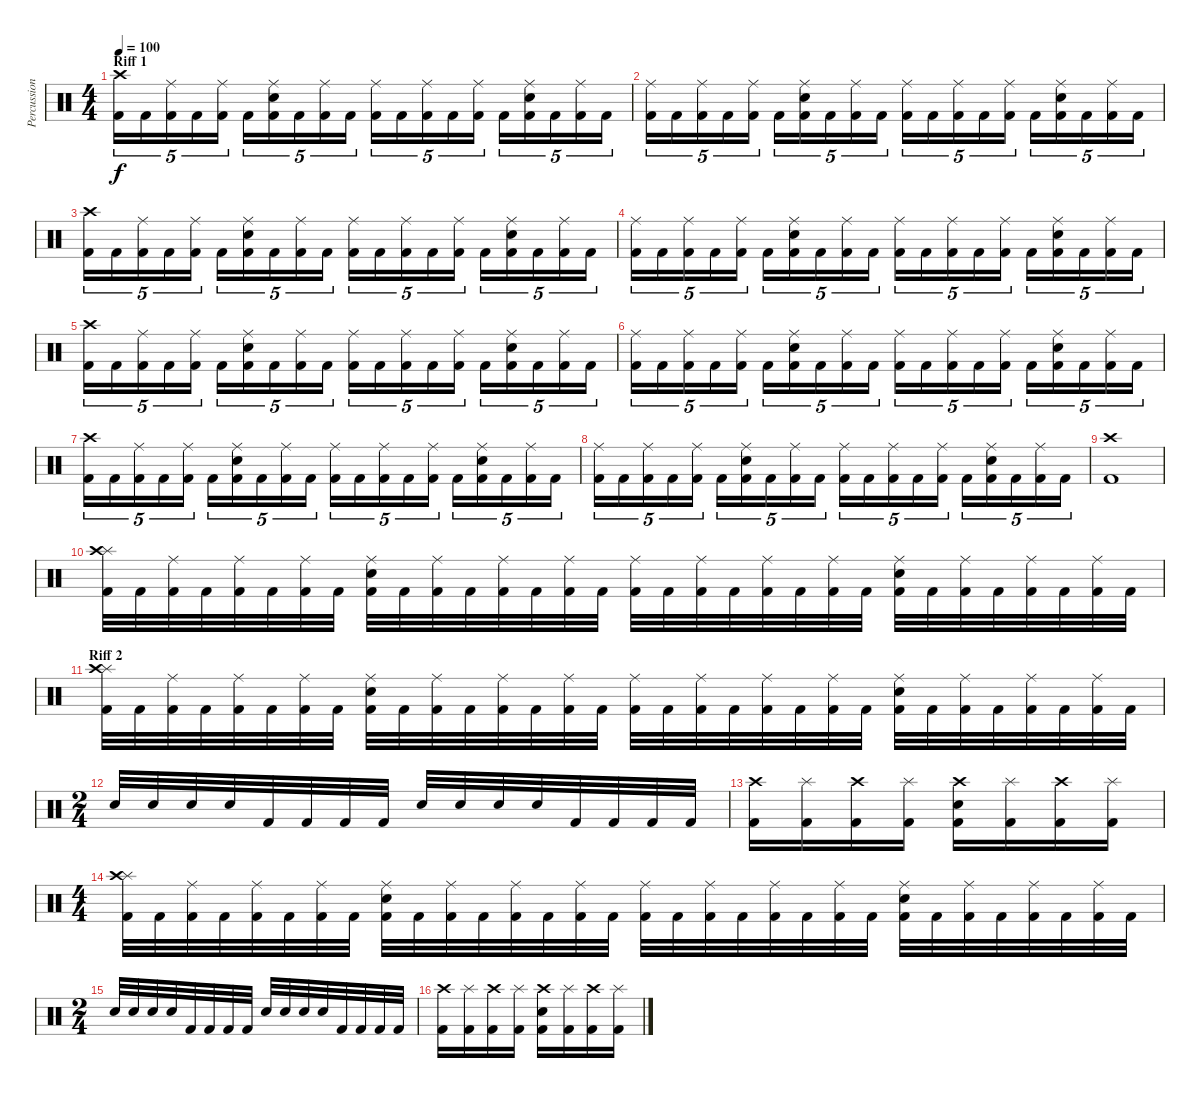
\track ("Percussion" "Percussion") {instrument percussion}
\staff {score}
\articulation defaults
\ts (4 4)
\section ("" "Riff 1")
\tempo 100
\clef neutral
\ks c
("Crash high (hit)" "Kick (hit) 2").16{tu (5 4) dy f} "Kick (hit) 2".16{tu (5 4)} ("Ride (middle)" "Kick (hit) 2").16{tu (5 4)} "Kick (hit) 2".16{tu (5 4)} ("Ride (middle)" "Kick (hit) 2").16{tu (5 4)} "Kick (hit) 2".16{tu (5 4)} ("Ride (middle)" "Electric Snare (hit)" "Kick (hit) 2").16{tu (5 4)} "Kick (hit) 2".16{tu (5 4)} ("Ride (middle)" "Kick (hit) 2").16{tu (5 4)} "Kick (hit) 2".16{tu (5 4)} ("Ride (middle)" "Kick (hit) 2").16{tu (5 4)} "Kick (hit) 2".16{tu (5 4)} ("Ride (middle)" "Kick (hit) 2").16{tu (5 4)} "Kick (hit) 2".16{tu (5 4)} ("Ride (middle)" "Kick (hit) 2").16{tu (5 4)} "Kick (hit) 2".16{tu (5 4)} ("Ride (middle)" "Electric Snare (hit)" "Kick (hit) 2").16{tu (5 4)} "Kick (hit) 2".16{tu (5 4)} ("Ride (middle)" "Kick (hit) 2").16{tu (5 4)} "Kick (hit) 2".16{tu (5 4)} |
("Ride (middle)" "Kick (hit) 2").16{tu (5 4)} "Kick (hit) 2".16{tu (5 4)} ("Ride (middle)" "Kick (hit) 2").16{tu (5 4)} "Kick (hit) 2".16{tu (5 4)} ("Ride (middle)" "Kick (hit) 2").16{tu (5 4)} "Kick (hit) 2".16{tu (5 4)} ("Ride (middle)" "Electric Snare (hit)" "Kick (hit) 2").16{tu (5 4)} "Kick (hit) 2".16{tu (5 4)} ("Ride (middle)" "Kick (hit) 2").16{tu (5 4)} "Kick (hit) 2".16{tu (5 4)} ("Ride (middle)" "Kick (hit) 2").16{tu (5 4)} "Kick (hit) 2".16{tu (5 4)} ("Ride (middle)" "Kick (hit) 2").16{tu (5 4)} "Kick (hit) 2".16{tu (5 4)} ("Ride (middle)" "Kick (hit) 2").16{tu (5 4)} "Kick (hit) 2".16{tu (5 4)} ("Ride (middle)" "Electric Snare (hit)" "Kick (hit) 2").16{tu (5 4)} "Kick (hit) 2".16{tu (5 4)} ("Ride (middle)" "Kick (hit) 2").16{tu (5 4)} "Kick (hit) 2".16{tu (5 4)} |
("Crash high (hit)" "Kick (hit) 2").16{tu (5 4)} "Kick (hit) 2".16{tu (5 4)} ("Ride (middle)" "Kick (hit) 2").16{tu (5 4)} "Kick (hit) 2".16{tu (5 4)} ("Ride (middle)" "Kick (hit) 2").16{tu (5 4)} "Kick (hit) 2".16{tu (5 4)} ("Ride (middle)" "Electric Snare (hit)" "Kick (hit) 2").16{tu (5 4)} "Kick (hit) 2".16{tu (5 4)} ("Ride (middle)" "Kick (hit) 2").16{tu (5 4)} "Kick (hit) 2".16{tu (5 4)} ("Ride (middle)" "Kick (hit) 2").16{tu (5 4)} "Kick (hit) 2".16{tu (5 4)} ("Ride (middle)" "Kick (hit) 2").16{tu (5 4)} "Kick (hit) 2".16{tu (5 4)} ("Ride (middle)" "Kick (hit) 2").16{tu (5 4)} "Kick (hit) 2".16{tu (5 4)} ("Ride (middle)" "Electric Snare (hit)" "Kick (hit) 2").16{tu (5 4)} "Kick (hit) 2".16{tu (5 4)} ("Ride (middle)" "Kick (hit) 2").16{tu (5 4)} "Kick (hit) 2".16{tu (5 4)} |
("Ride (middle)" "Kick (hit) 2").16{tu (5 4)} "Kick (hit) 2".16{tu (5 4)} ("Ride (middle)" "Kick (hit) 2").16{tu (5 4)} "Kick (hit) 2".16{tu (5 4)} ("Ride (middle)" "Kick (hit) 2").16{tu (5 4)} "Kick (hit) 2".16{tu (5 4)} ("Ride (middle)" "Electric Snare (hit)" "Kick (hit) 2").16{tu (5 4)} "Kick (hit) 2".16{tu (5 4)} ("Ride (middle)" "Kick (hit) 2").16{tu (5 4)} "Kick (hit) 2".16{tu (5 4)} ("Ride (middle)" "Kick (hit) 2").16{tu (5 4)} "Kick (hit) 2".16{tu (5 4)} ("Ride (middle)" "Kick (hit) 2").16{tu (5 4)} "Kick (hit) 2".16{tu (5 4)} ("Ride (middle)" "Kick (hit) 2").16{tu (5 4)} "Kick (hit) 2".16{tu (5 4)} ("Ride (middle)" "Electric Snare (hit)" "Kick (hit) 2").16{tu (5 4)} "Kick (hit) 2".16{tu (5 4)} ("Ride (middle)" "Kick (hit) 2").16{tu (5 4)} "Kick (hit) 2".16{tu (5 4)} |
("Crash high (hit)" "Kick (hit) 2").16{tu (5 4)} "Kick (hit) 2".16{tu (5 4)} ("Ride (middle)" "Kick (hit) 2").16{tu (5 4)} "Kick (hit) 2".16{tu (5 4)} ("Ride (middle)" "Kick (hit) 2").16{tu (5 4)} "Kick (hit) 2".16{tu (5 4)} ("Ride (middle)" "Electric Snare (hit)" "Kick (hit) 2").16{tu (5 4)} "Kick (hit) 2".16{tu (5 4)} ("Ride (middle)" "Kick (hit) 2").16{tu (5 4)} "Kick (hit) 2".16{tu (5 4)} ("Ride (middle)" "Kick (hit) 2").16{tu (5 4)} "Kick (hit) 2".16{tu (5 4)} ("Ride (middle)" "Kick (hit) 2").16{tu (5 4)} "Kick (hit) 2".16{tu (5 4)} ("Ride (middle)" "Kick (hit) 2").16{tu (5 4)} "Kick (hit) 2".16{tu (5 4)} ("Ride (middle)" "Electric Snare (hit)" "Kick (hit) 2").16{tu (5 4)} "Kick (hit) 2".16{tu (5 4)} ("Ride (middle)" "Kick (hit) 2").16{tu (5 4)} "Kick (hit) 2".16{tu (5 4)} |
("Ride (middle)" "Kick (hit) 2").16{tu (5 4)} "Kick (hit) 2".16{tu (5 4)} ("Ride (middle)" "Kick (hit) 2").16{tu (5 4)} "Kick (hit) 2".16{tu (5 4)} ("Ride (middle)" "Kick (hit) 2").16{tu (5 4)} "Kick (hit) 2".16{tu (5 4)} ("Ride (middle)" "Electric Snare (hit)" "Kick (hit) 2").16{tu (5 4)} "Kick (hit) 2".16{tu (5 4)} ("Ride (middle)" "Kick (hit) 2").16{tu (5 4)} "Kick (hit) 2".16{tu (5 4)} ("Ride (middle)" "Kick (hit) 2").16{tu (5 4)} "Kick (hit) 2".16{tu (5 4)} ("Ride (middle)" "Kick (hit) 2").16{tu (5 4)} "Kick (hit) 2".16{tu (5 4)} ("Ride (middle)" "Kick (hit) 2").16{tu (5 4)} "Kick (hit) 2".16{tu (5 4)} ("Ride (middle)" "Electric Snare (hit)" "Kick (hit) 2").16{tu (5 4)} "Kick (hit) 2".16{tu (5 4)} ("Ride (middle)" "Kick (hit) 2").16{tu (5 4)} "Kick (hit) 2".16{tu (5 4)} |
("Crash high (hit)" "Kick (hit) 2").16{tu (5 4)} "Kick (hit) 2".16{tu (5 4)} ("Ride (middle)" "Kick (hit) 2").16{tu (5 4)} "Kick (hit) 2".16{tu (5 4)} ("Ride (middle)" "Kick (hit) 2").16{tu (5 4)} "Kick (hit) 2".16{tu (5 4)} ("Ride (middle)" "Electric Snare (hit)" "Kick (hit) 2").16{tu (5 4)} "Kick (hit) 2".16{tu (5 4)} ("Ride (middle)" "Kick (hit) 2").16{tu (5 4)} "Kick (hit) 2".16{tu (5 4)} ("Ride (middle)" "Kick (hit) 2").16{tu (5 4)} "Kick (hit) 2".16{tu (5 4)} ("Ride (middle)" "Kick (hit) 2").16{tu (5 4)} "Kick (hit) 2".16{tu (5 4)} ("Ride (middle)" "Kick (hit) 2").16{tu (5 4)} "Kick (hit) 2".16{tu (5 4)} ("Ride (middle)" "Electric Snare (hit)" "Kick (hit) 2").16{tu (5 4)} "Kick (hit) 2".16{tu (5 4)} ("Ride (middle)" "Kick (hit) 2").16{tu (5 4)} "Kick (hit) 2".16{tu (5 4)} |
("Ride (middle)" "Kick (hit) 2").16{tu (5 4)} "Kick (hit) 2".16{tu (5 4)} ("Ride (middle)" "Kick (hit) 2").16{tu (5 4)} "Kick (hit) 2".16{tu (5 4)} ("Ride (middle)" "Kick (hit) 2").16{tu (5 4)} "Kick (hit) 2".16{tu (5 4)} ("Ride (middle)" "Electric Snare (hit)" "Kick (hit) 2").16{tu (5 4)} "Kick (hit) 2".16{tu (5 4)} ("Ride (middle)" "Kick (hit) 2").16{tu (5 4)} "Kick (hit) 2".16{tu (5 4)} ("Ride (middle)" "Kick (hit) 2").16{tu (5 4)} "Kick (hit) 2".16{tu (5 4)} ("Ride (middle)" "Kick (hit) 2").16{tu (5 4)} "Kick (hit) 2".16{tu (5 4)} ("Ride (middle)" "Kick (hit) 2").16{tu (5 4)} "Kick (hit) 2".16{tu (5 4)} ("Ride (middle)" "Electric Snare (hit)" "Kick (hit) 2").16{tu (5 4)} "Kick (hit) 2".16{tu (5 4)} ("Ride (middle)" "Kick (hit) 2").16{tu (5 4)} "Kick (hit) 2".16{tu (5 4)} |
("Crash high (hit)" "Kick (hit) 2").1 |
("Splash (hit)" "Crash high (hit)" "Kick (hit) 2").32 "Kick (hit) 2".32 ("Ride (middle)" "Kick (hit) 2").32 "Kick (hit) 2".32 ("Ride (middle)" "Kick (hit) 2").32 "Kick (hit) 2".32 ("Ride (middle)" "Kick (hit) 2").32 "Kick (hit) 2".32 ("Ride (middle)" "Electric Snare (hit)" "Kick (hit) 2").32 "Kick (hit) 2".32 ("Ride (middle)" "Kick (hit) 2").32 "Kick (hit) 2".32 ("Ride (middle)" "Kick (hit) 2").32 "Kick (hit) 2".32 ("Ride (middle)" "Kick (hit) 2").32 "Kick (hit) 2".32 ("Ride (middle)" "Kick (hit) 2").32 "Kick (hit) 2".32 ("Ride (middle)" "Kick (hit) 2").32 "Kick (hit) 2".32 ("Ride (middle)" "Kick (hit) 2").32 "Kick (hit) 2".32 ("Ride (middle)" "Kick (hit) 2").32 "Kick (hit) 2".32 ("Ride (middle)" "Electric Snare (hit)" "Kick (hit) 2").32 "Kick (hit) 2".32 ("Ride (middle)" "Kick (hit) 2").32 "Kick (hit) 2".32 ("Ride (middle)" "Kick (hit) 2").32 "Kick (hit) 2".32 ("Ride (middle)" "Kick (hit) 2").32 "Kick (hit) 2".32 |
\section ("" "Riff 2")
("Splash (hit)" "Crash high (hit)" "Kick (hit) 2").32 "Kick (hit) 2".32 ("Ride (middle)" "Kick (hit) 2").32 "Kick (hit) 2".32 ("Ride (middle)" "Kick (hit) 2").32 "Kick (hit) 2".32 ("Ride (middle)" "Kick (hit) 2").32 "Kick (hit) 2".32 ("Ride (middle)" "Electric Snare (hit)" "Kick (hit) 2").32 "Kick (hit) 2".32 ("Ride (middle)" "Kick (hit) 2").32 "Kick (hit) 2".32 ("Ride (middle)" "Kick (hit) 2").32 "Kick (hit) 2".32 ("Ride (middle)" "Kick (hit) 2").32 "Kick (hit) 2".32 ("Ride (middle)" "Kick (hit) 2").32 "Kick (hit) 2".32 ("Ride (middle)" "Kick (hit) 2").32 "Kick (hit) 2".32 ("Ride (middle)" "Kick (hit) 2").32 "Kick (hit) 2".32 ("Ride (middle)" "Kick (hit) 2").32 "Kick (hit) 2".32 ("Ride (middle)" "Electric Snare (hit)" "Kick (hit) 2").32 "Kick (hit) 2".32 ("Ride (middle)" "Kick (hit) 2").32 "Kick (hit) 2".32 ("Ride (middle)" "Kick (hit) 2").32 "Kick (hit) 2".32 ("Ride (middle)" "Kick (hit) 2").32 "Kick (hit) 2".32 |
\ts (2 4)
"Electric Snare (hit)".32 "Electric Snare (hit)".32 "Electric Snare (hit)".32 "Electric Snare (hit)".32 "Kick (hit) 2".32 "Kick (hit) 2".32 "Kick (hit) 2".32 "Kick (hit) 2".32 "Electric Snare (hit)".32 "Electric Snare (hit)".32 "Electric Snare (hit)".32 "Electric Snare (hit)".32 "Kick (hit) 2".32 "Kick (hit) 2".32 "Kick (hit) 2".32 "Kick (hit) 2".32 |
("Crash high (hit)" "Kick (hit) 2").16 ("Splash (hit)" "Kick (hit) 2").16 ("Crash high (hit)" "Kick (hit) 2").16 ("Splash (hit)" "Kick (hit) 2").16 ("Crash high (hit)" "Electric Snare (hit)" "Kick (hit) 2").16 ("Splash (hit)" "Kick (hit) 2").16 ("Crash high (hit)" "Kick (hit) 2").16 ("Splash (hit)" "Kick (hit) 2").16 |
\ts (4 4)
("Splash (hit)" "Crash high (hit)" "Kick (hit) 2").32 "Kick (hit) 2".32 ("Ride (middle)" "Kick (hit) 2").32 "Kick (hit) 2".32 ("Ride (middle)" "Kick (hit) 2").32 "Kick (hit) 2".32 ("Ride (middle)" "Kick (hit) 2").32 "Kick (hit) 2".32 ("Ride (middle)" "Electric Snare (hit)" "Kick (hit) 2").32 "Kick (hit) 2".32 ("Ride (middle)" "Kick (hit) 2").32 "Kick (hit) 2".32 ("Ride (middle)" "Kick (hit) 2").32 "Kick (hit) 2".32 ("Ride (middle)" "Kick (hit) 2").32 "Kick (hit) 2".32 ("Ride (middle)" "Kick (hit) 2").32 "Kick (hit) 2".32 ("Ride (middle)" "Kick (hit) 2").32 "Kick (hit) 2".32 ("Ride (middle)" "Kick (hit) 2").32 "Kick (hit) 2".32 ("Ride (middle)" "Kick (hit) 2").32 "Kick (hit) 2".32 ("Ride (middle)" "Electric Snare (hit)" "Kick (hit) 2").32 "Kick (hit) 2".32 ("Ride (middle)" "Kick (hit) 2").32 "Kick (hit) 2".32 ("Ride (middle)" "Kick (hit) 2").32 "Kick (hit) 2".32 ("Ride (middle)" "Kick (hit) 2").32 "Kick (hit) 2".32 |
\ts (2 4)
"Electric Snare (hit)".32 "Electric Snare (hit)".32 "Electric Snare (hit)".32 "Electric Snare (hit)".32 "Kick (hit) 2".32 "Kick (hit) 2".32 "Kick (hit) 2".32 "Kick (hit) 2".32 "Electric Snare (hit)".32 "Electric Snare (hit)".32 "Electric Snare (hit)".32 "Electric Snare (hit)".32 "Kick (hit) 2".32 "Kick (hit) 2".32 "Kick (hit) 2".32 "Kick (hit) 2".32 |
("Crash high (hit)" "Kick (hit) 2").16 ("Splash (hit)" "Kick (hit) 2").16 ("Crash high (hit)" "Kick (hit) 2").16 ("Splash (hit)" "Kick (hit) 2").16 ("Crash high (hit)" "Electric Snare (hit)" "Kick (hit) 2").16 ("Splash (hit)" "Kick (hit) 2").16 ("Crash high (hit)" "Kick (hit) 2").16 ("Splash (hit)" "Kick (hit) 2").16
